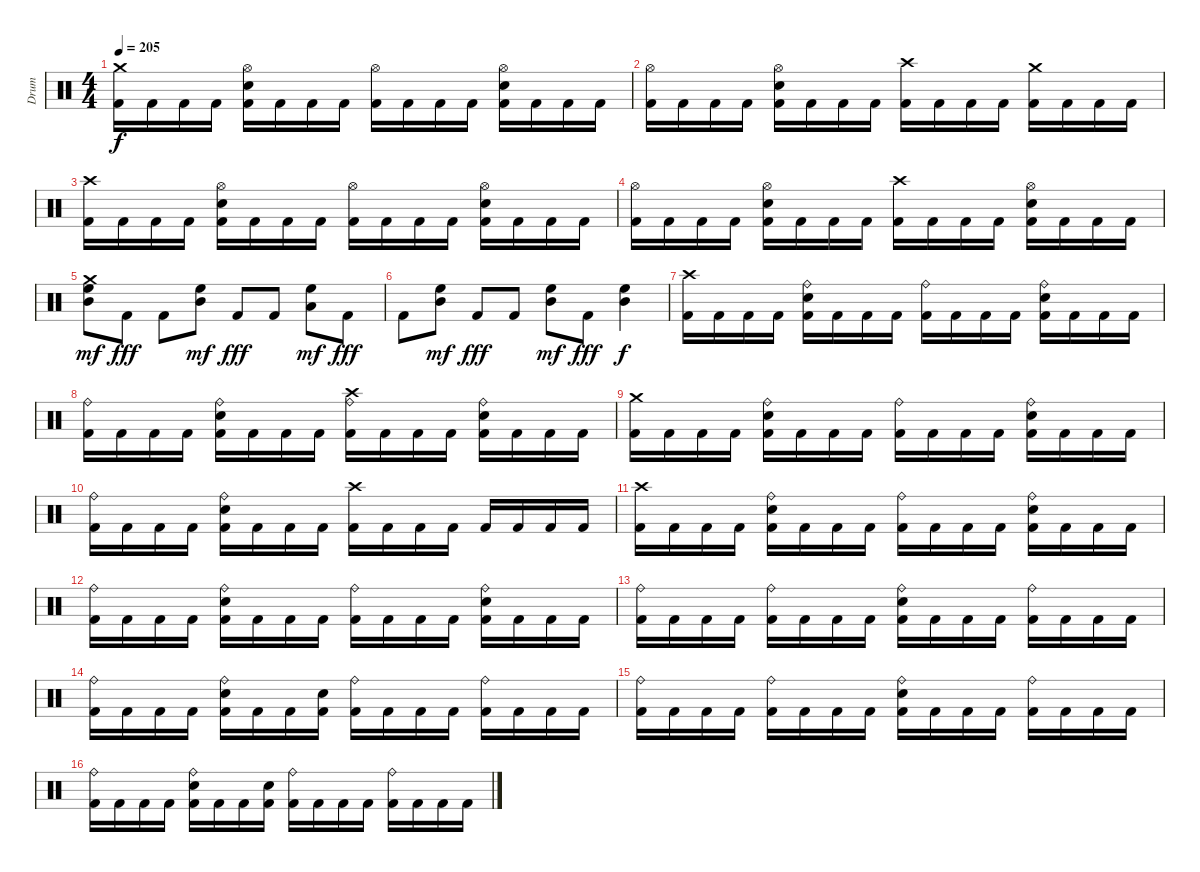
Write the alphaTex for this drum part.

\track ("Drum" "Drum") {instrument percussion}
\staff {score}
\articulation defaults
\ts (4 4)
\tempo 205
\clef neutral
\ks c
("Kick (hit) 2" "Crash medium (hit)").16{dy f} "Kick (hit) 2".16 "Kick (hit) 2".16 "Kick (hit) 2".16 ("Kick (hit) 2" "Electric Snare (hit)" "Hi-Hat (open)").16 "Kick (hit) 2".16 "Kick (hit) 2".16 "Kick (hit) 2".16 ("Kick (hit) 2" "Hi-Hat (open)").16 "Kick (hit) 2".16 "Kick (hit) 2".16 "Kick (hit) 2".16 ("Kick (hit) 2" "Electric Snare (hit)" "Hi-Hat (open)").16 "Kick (hit) 2".16 "Kick (hit) 2".16 "Kick (hit) 2".16 |
("Kick (hit) 2" "Hi-Hat (open)").16 "Kick (hit) 2".16 "Kick (hit) 2".16 "Kick (hit) 2".16 ("Kick (hit) 2" "Electric Snare (hit)" "Hi-Hat (open)").16 "Kick (hit) 2".16 "Kick (hit) 2".16 "Kick (hit) 2".16 ("Kick (hit) 2" "Crash high (hit)").16 "Kick (hit) 2".16 "Kick (hit) 2".16 "Kick (hit) 2".16 ("Kick (hit) 2" "Crash medium (hit)").16 "Kick (hit) 2".16 "Kick (hit) 2".16 "Kick (hit) 2".16 |
("Kick (hit) 2" "Crash high (hit)").16 "Kick (hit) 2".16 "Kick (hit) 2".16 "Kick (hit) 2".16 ("Kick (hit) 2" "Electric Snare (hit)" "Hi-Hat (open)").16 "Kick (hit) 2".16 "Kick (hit) 2".16 "Kick (hit) 2".16 ("Kick (hit) 2" "Hi-Hat (open)").16 "Kick (hit) 2".16 "Kick (hit) 2".16 "Kick (hit) 2".16 ("Kick (hit) 2" "Electric Snare (hit)" "Hi-Hat (open)").16 "Kick (hit) 2".16 "Kick (hit) 2".16 "Kick (hit) 2".16 |
("Kick (hit) 2" "Hi-Hat (open)").16 "Kick (hit) 2".16 "Kick (hit) 2".16 "Kick (hit) 2".16 ("Kick (hit) 2" "Electric Snare (hit)" "Hi-Hat (open)").16 "Kick (hit) 2".16 "Kick (hit) 2".16 "Kick (hit) 2".16 ("Kick (hit) 2" "Crash high (hit)").16 "Kick (hit) 2".16 "Kick (hit) 2".16 "Kick (hit) 2".16 ("Kick (hit) 2" "Electric Snare (hit)" "Hi-Hat (open)").16 "Kick (hit) 2".16 "Kick (hit) 2".16 "Kick (hit) 2".16 |
("High Floor Tom (hit)" "Mid Tom (hit)" "Crash medium (hit)").8{dy mf} "Kick (hit) 2".8{dy fff} "Kick (hit) 2".8 ("High Floor Tom (hit)" "Mid Tom (hit)").8{dy mf} "Kick (hit) 2".8{dy fff} "Kick (hit) 2".8 ("High Floor Tom (hit)" "Low Tom (hit)").8{dy mf} "Kick (hit) 2".8{dy fff} |
"Kick (hit) 2".8 ("High Floor Tom (hit)" "Mid Tom (hit)").8{dy mf} "Kick (hit) 2".8{dy fff} "Kick (hit) 2".8 ("High Floor Tom (hit)" "Mid Tom (hit)").8{dy mf} "Kick (hit) 2".8{dy fff} ("High Floor Tom (hit)" "Mid Tom (hit)").4{dy f} |
("Kick (hit) 2" "Crash high (hit)").16 "Kick (hit) 2".16 "Kick (hit) 2".16 "Kick (hit) 2".16 ("Kick (hit) 2" "Electric Snare (hit)" "Ride (bell)").16 "Kick (hit) 2".16 "Kick (hit) 2".16 "Kick (hit) 2".16 ("Kick (hit) 2" "Ride (bell)").16 "Kick (hit) 2".16 "Kick (hit) 2".16 "Kick (hit) 2".16 ("Kick (hit) 2" "Electric Snare (hit)" "Ride (bell)").16 "Kick (hit) 2".16 "Kick (hit) 2".16 "Kick (hit) 2".16 |
("Kick (hit) 2" "Ride (bell)").16 "Kick (hit) 2".16 "Kick (hit) 2".16 "Kick (hit) 2".16 ("Kick (hit) 2" "Electric Snare (hit)" "Ride (bell)").16 "Kick (hit) 2".16 "Kick (hit) 2".16 "Kick (hit) 2".16 ("Kick (hit) 2" "Crash high (hit)" "Ride (bell)").16 "Kick (hit) 2".16 "Kick (hit) 2".16 "Kick (hit) 2".16 ("Kick (hit) 2" "Electric Snare (hit)" "Ride (bell)").16 "Kick (hit) 2".16 "Kick (hit) 2".16 "Kick (hit) 2".16 |
("Kick (hit) 2" "Crash medium (hit)").16 "Kick (hit) 2".16 "Kick (hit) 2".16 "Kick (hit) 2".16 ("Kick (hit) 2" "Electric Snare (hit)" "Ride (bell)").16 "Kick (hit) 2".16 "Kick (hit) 2".16 "Kick (hit) 2".16 ("Kick (hit) 2" "Ride (bell)").16 "Kick (hit) 2".16 "Kick (hit) 2".16 "Kick (hit) 2".16 ("Kick (hit) 2" "Electric Snare (hit)" "Ride (bell)").16 "Kick (hit) 2".16 "Kick (hit) 2".16 "Kick (hit) 2".16 |
("Kick (hit) 2" "Ride (bell)").16 "Kick (hit) 2".16 "Kick (hit) 2".16 "Kick (hit) 2".16 ("Kick (hit) 2" "Electric Snare (hit)" "Ride (bell)").16 "Kick (hit) 2".16 "Kick (hit) 2".16 "Kick (hit) 2".16 ("Kick (hit) 2" "Crash high (hit)").16 "Kick (hit) 2".16 "Kick (hit) 2".16 "Kick (hit) 2".16 "Kick (hit) 2".16 "Kick (hit) 2".16 "Kick (hit) 2".16 "Kick (hit) 2".16 |
("Kick (hit) 2" "Crash high (hit)").16 "Kick (hit) 2".16 "Kick (hit) 2".16 "Kick (hit) 2".16 ("Kick (hit) 2" "Electric Snare (hit)" "Ride (bell)").16 "Kick (hit) 2".16 "Kick (hit) 2".16 "Kick (hit) 2".16 ("Kick (hit) 2" "Ride (bell)").16 "Kick (hit) 2".16 "Kick (hit) 2".16 "Kick (hit) 2".16 ("Kick (hit) 2" "Electric Snare (hit)" "Ride (bell)").16 "Kick (hit) 2".16 "Kick (hit) 2".16 "Kick (hit) 2".16 |
("Kick (hit) 2" "Ride (bell)").16 "Kick (hit) 2".16 "Kick (hit) 2".16 "Kick (hit) 2".16 ("Kick (hit) 2" "Electric Snare (hit)" "Ride (bell)").16 "Kick (hit) 2".16 "Kick (hit) 2".16 "Kick (hit) 2".16 ("Kick (hit) 2" "Ride (bell)").16 "Kick (hit) 2".16 "Kick (hit) 2".16 "Kick (hit) 2".16 ("Kick (hit) 2" "Electric Snare (hit)" "Ride (bell)").16 "Kick (hit) 2".16 "Kick (hit) 2".16 "Kick (hit) 2".16 |
("Kick (hit) 2" "Ride (bell)").16 "Kick (hit) 2".16 "Kick (hit) 2".16 "Kick (hit) 2".16 ("Kick (hit) 2" "Ride (bell)").16 "Kick (hit) 2".16 "Kick (hit) 2".16 "Kick (hit) 2".16 ("Kick (hit) 2" "Electric Snare (hit)" "Ride (bell)").16 "Kick (hit) 2".16 "Kick (hit) 2".16 "Kick (hit) 2".16 ("Kick (hit) 2" "Ride (bell)").16 "Kick (hit) 2".16 "Kick (hit) 2".16 "Kick (hit) 2".16 |
("Kick (hit) 2" "Ride (bell)").16 "Kick (hit) 2".16 "Kick (hit) 2".16 "Kick (hit) 2".16 ("Kick (hit) 2" "Electric Snare (hit)" "Ride (bell)").16 "Kick (hit) 2".16 "Kick (hit) 2".16 ("Kick (hit) 2" "Electric Snare (hit)").16 ("Kick (hit) 2" "Ride (bell)").16 "Kick (hit) 2".16 "Kick (hit) 2".16 "Kick (hit) 2".16 ("Kick (hit) 2" "Ride (bell)").16 "Kick (hit) 2".16 "Kick (hit) 2".16 "Kick (hit) 2".16 |
("Kick (hit) 2" "Ride (bell)").16 "Kick (hit) 2".16 "Kick (hit) 2".16 "Kick (hit) 2".16 ("Kick (hit) 2" "Ride (bell)").16 "Kick (hit) 2".16 "Kick (hit) 2".16 "Kick (hit) 2".16 ("Kick (hit) 2" "Electric Snare (hit)" "Ride (bell)").16 "Kick (hit) 2".16 "Kick (hit) 2".16 "Kick (hit) 2".16 ("Kick (hit) 2" "Ride (bell)").16 "Kick (hit) 2".16 "Kick (hit) 2".16 "Kick (hit) 2".16 |
("Kick (hit) 2" "Ride (bell)").16 "Kick (hit) 2".16 "Kick (hit) 2".16 "Kick (hit) 2".16 ("Kick (hit) 2" "Electric Snare (hit)" "Ride (bell)").16 "Kick (hit) 2".16 "Kick (hit) 2".16 ("Kick (hit) 2" "Electric Snare (hit)").16 ("Kick (hit) 2" "Ride (bell)").16 "Kick (hit) 2".16 "Kick (hit) 2".16 "Kick (hit) 2".16 ("Kick (hit) 2" "Ride (bell)").16 "Kick (hit) 2".16 "Kick (hit) 2".16 "Kick (hit) 2".16
